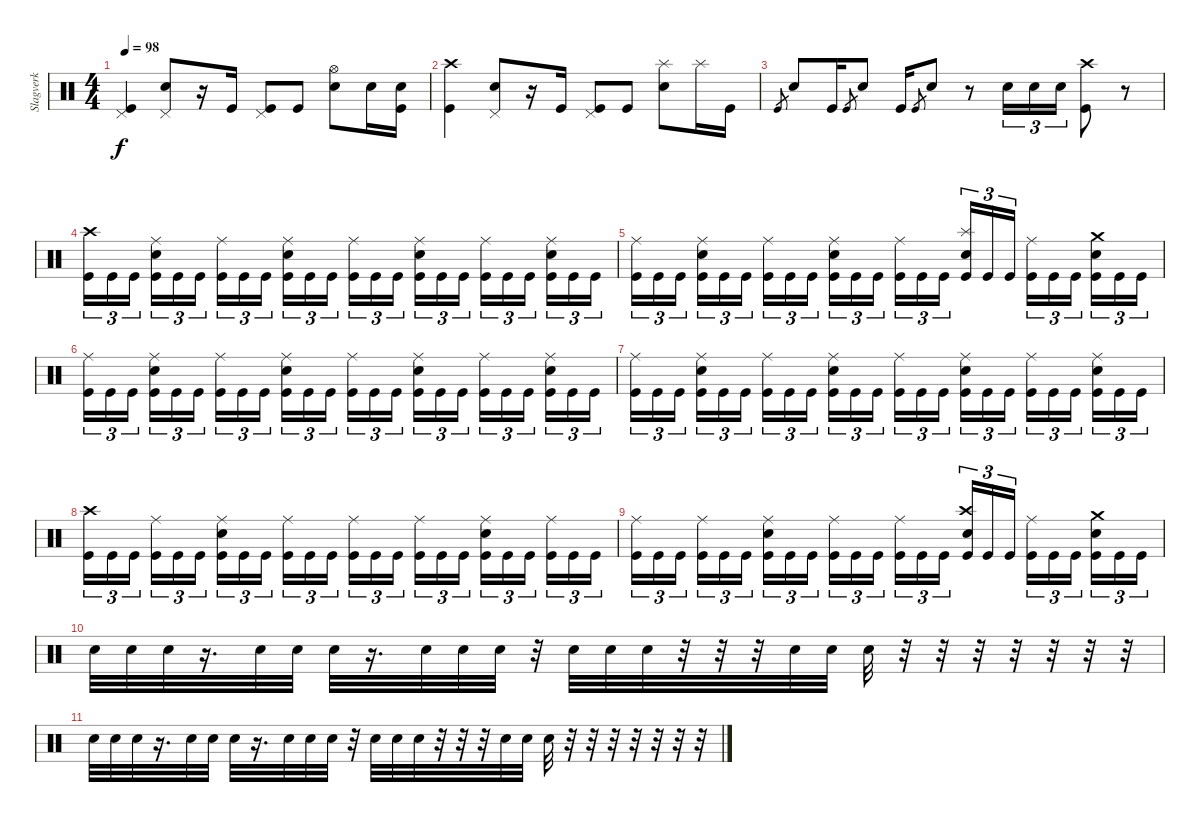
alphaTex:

\track ("Slagverk" "Slagverk") {instrument percussion}
\staff {score}
\articulation defaults
\ts (4 4)
\tempo 98
\clef neutral
\ks c
("Pedal Hi-Hat (hit)" "Kick (hit)").4{dy f} ("Pedal Hi-Hat (hit)" "Snare (hit) 2").8 r.16 "Kick (hit)".16 ("Pedal Hi-Hat (hit)" "Kick (hit)").8 "Kick (hit)".8 ("Hi-Hat (open)" "Snare (hit) 2").8 "Snare (hit) 2".16 ("Snare (hit) 2" "Kick (hit)").16 |
("Crash high (hit)" "Kick (hit)").4 ("Pedal Hi-Hat (hit)" "Snare (hit) 2").8 r.16 "Kick (hit)".16 ("Pedal Hi-Hat (hit)" "Kick (hit)").8 "Kick (hit)".8 ("Splash (hit)" "Snare (hit) 2").8 "Splash (hit)".16 "Kick (hit)".16 |
"Kick (hit)"{sl}.8{gr} "Electric Snare (hit)".8 "Kick (hit)".16 "Kick (hit)"{sl}.8{gr} "Electric Snare (hit)".8 "Kick (hit)".16 "Kick (hit)"{sl}.8{gr} "Electric Snare (hit)".8 r.8 "Electric Snare (hit)".16{tu (3 2)} "Electric Snare (hit)".16{tu (3 2)} "Electric Snare (hit)".16{tu (3 2)} ("Crash high (hit)" "Kick (hit)").8 r.8 |
("Crash high (hit)" "Kick (hit)").16{tu (3 2)} "Kick (hit)".16{tu (3 2)} "Kick (hit)".16{tu (3 2)} ("Ride (middle)" "Electric Snare (hit)" "Kick (hit)").16{tu (3 2)} "Kick (hit)".16{tu (3 2)} "Kick (hit)".16{tu (3 2)} ("Ride (middle)" "Kick (hit)").16{tu (3 2)} "Kick (hit)".16{tu (3 2)} "Kick (hit)".16{tu (3 2)} ("Ride (middle)" "Electric Snare (hit)" "Kick (hit)").16{tu (3 2)} "Kick (hit)".16{tu (3 2)} "Kick (hit)".16{tu (3 2)} ("Ride (middle)" "Kick (hit)").16{tu (3 2)} "Kick (hit)".16{tu (3 2)} "Kick (hit)".16{tu (3 2)} ("Ride (middle)" "Electric Snare (hit)" "Kick (hit)").16{tu (3 2)} "Kick (hit)".16{tu (3 2)} "Kick (hit)".16{tu (3 2)} ("Ride (middle)" "Kick (hit)").16{tu (3 2)} "Kick (hit)".16{tu (3 2)} "Kick (hit)".16{tu (3 2)} ("Ride (middle)" "Electric Snare (hit)" "Kick (hit)").16{tu (3 2)} "Kick (hit)".16{tu (3 2)} "Kick (hit)".16{tu (3 2)} |
("Ride (middle)" "Kick (hit)").16{tu (3 2)} "Kick (hit)".16{tu (3 2)} "Kick (hit)".16{tu (3 2)} ("Ride (middle)" "Electric Snare (hit)" "Kick (hit)").16{tu (3 2)} "Kick (hit)".16{tu (3 2)} "Kick (hit)".16{tu (3 2)} ("Ride (middle)" "Kick (hit)").16{tu (3 2)} "Kick (hit)".16{tu (3 2)} "Kick (hit)".16{tu (3 2)} ("Ride (middle)" "Electric Snare (hit)" "Kick (hit)").16{tu (3 2)} "Kick (hit)".16{tu (3 2)} "Kick (hit)".16{tu (3 2)} ("Ride (middle)" "Kick (hit)").16{tu (3 2)} "Kick (hit)".16{tu (3 2)} "Kick (hit)".16{tu (3 2)} ("Splash (hit)" "Electric Snare (hit)" "Kick (hit)").16{tu (3 2)} "Kick (hit)".16{tu (3 2)} "Kick (hit)".16{tu (3 2)} ("Ride (middle)" "Kick (hit)").16{tu (3 2)} "Kick (hit)".16{tu (3 2)} "Kick (hit)".16{tu (3 2)} ("Crash medium (hit)" "Electric Snare (hit)" "Kick (hit)").16{tu (3 2)} "Kick (hit)".16{tu (3 2)} "Kick (hit)".16{tu (3 2)} |
("Ride (middle)" "Kick (hit)").16{tu (3 2)} "Kick (hit)".16{tu (3 2)} "Kick (hit)".16{tu (3 2)} ("Ride (middle)" "Electric Snare (hit)" "Kick (hit)").16{tu (3 2)} "Kick (hit)".16{tu (3 2)} "Kick (hit)".16{tu (3 2)} ("Ride (middle)" "Kick (hit)").16{tu (3 2)} "Kick (hit)".16{tu (3 2)} "Kick (hit)".16{tu (3 2)} ("Ride (middle)" "Electric Snare (hit)" "Kick (hit)").16{tu (3 2)} "Kick (hit)".16{tu (3 2)} "Kick (hit)".16{tu (3 2)} ("Ride (middle)" "Kick (hit)").16{tu (3 2)} "Kick (hit)".16{tu (3 2)} "Kick (hit)".16{tu (3 2)} ("Ride (middle)" "Electric Snare (hit)" "Kick (hit)").16{tu (3 2)} "Kick (hit)".16{tu (3 2)} "Kick (hit)".16{tu (3 2)} ("Ride (middle)" "Kick (hit)").16{tu (3 2)} "Kick (hit)".16{tu (3 2)} "Kick (hit)".16{tu (3 2)} ("Ride (middle)" "Electric Snare (hit)" "Kick (hit)").16{tu (3 2)} "Kick (hit)".16{tu (3 2)} "Kick (hit)".16{tu (3 2)} |
("Ride (middle)" "Kick (hit)").16{tu (3 2)} "Kick (hit)".16{tu (3 2)} "Kick (hit)".16{tu (3 2)} ("Ride (middle)" "Electric Snare (hit)" "Kick (hit)").16{tu (3 2)} "Kick (hit)".16{tu (3 2)} "Kick (hit)".16{tu (3 2)} ("Ride (middle)" "Kick (hit)").16{tu (3 2)} "Kick (hit)".16{tu (3 2)} "Kick (hit)".16{tu (3 2)} ("Ride (middle)" "Electric Snare (hit)" "Kick (hit)").16{tu (3 2)} "Kick (hit)".16{tu (3 2)} "Kick (hit)".16{tu (3 2)} ("Ride (middle)" "Kick (hit)").16{tu (3 2)} "Kick (hit)".16{tu (3 2)} "Kick (hit)".16{tu (3 2)} ("Ride (middle)" "Electric Snare (hit)" "Kick (hit)").16{tu (3 2)} "Kick (hit)".16{tu (3 2)} "Kick (hit)".16{tu (3 2)} ("Ride (middle)" "Kick (hit)").16{tu (3 2)} "Kick (hit)".16{tu (3 2)} "Kick (hit)".16{tu (3 2)} ("Ride (middle)" "Electric Snare (hit)" "Kick (hit)").16{tu (3 2)} "Kick (hit)".16{tu (3 2)} "Kick (hit)".16{tu (3 2)} |
("Crash high (hit)" "Kick (hit)").16{tu (3 2)} "Kick (hit)".16{tu (3 2)} "Kick (hit)".16{tu (3 2)} ("Ride (middle)" "Kick (hit)").16{tu (3 2)} "Kick (hit)".16{tu (3 2)} "Kick (hit)".16{tu (3 2)} ("Ride (middle)" "Electric Snare (hit)" "Kick (hit)").16{tu (3 2)} "Kick (hit)".16{tu (3 2)} "Kick (hit)".16{tu (3 2)} ("Ride (middle)" "Kick (hit)").16{tu (3 2)} "Kick (hit)".16{tu (3 2)} "Kick (hit)".16{tu (3 2)} ("Ride (middle)" "Kick (hit)").16{tu (3 2)} "Kick (hit)".16{tu (3 2)} "Kick (hit)".16{tu (3 2)} ("Ride (middle)" "Kick (hit)").16{tu (3 2)} "Kick (hit)".16{tu (3 2)} "Kick (hit)".16{tu (3 2)} ("Ride (middle)" "Electric Snare (hit)" "Kick (hit)").16{tu (3 2)} "Kick (hit)".16{tu (3 2)} "Kick (hit)".16{tu (3 2)} ("Ride (middle)" "Kick (hit)").16{tu (3 2)} "Kick (hit)".16{tu (3 2)} "Kick (hit)".16{tu (3 2)} |
("Ride (middle)" "Kick (hit)").16{tu (3 2)} "Kick (hit)".16{tu (3 2)} "Kick (hit)".16{tu (3 2)} ("Ride (middle)" "Kick (hit)").16{tu (3 2)} "Kick (hit)".16{tu (3 2)} "Kick (hit)".16{tu (3 2)} ("Ride (middle)" "Electric Snare (hit)" "Kick (hit)").16{tu (3 2)} "Kick (hit)".16{tu (3 2)} "Kick (hit)".16{tu (3 2)} ("Ride (middle)" "Kick (hit)").16{tu (3 2)} "Kick (hit)".16{tu (3 2)} "Kick (hit)".16{tu (3 2)} ("Ride (middle)" "Kick (hit)").16{tu (3 2)} "Kick (hit)".16{tu (3 2)} "Kick (hit)".16{tu (3 2)} ("Crash high (hit)" "Electric Snare (hit)" "Kick (hit)").16{tu (3 2)} "Kick (hit)".16{tu (3 2)} "Kick (hit)".16{tu (3 2)} ("Ride (middle)" "Kick (hit)").16{tu (3 2)} "Kick (hit)".16{tu (3 2)} "Kick (hit)".16{tu (3 2)} ("Crash medium (hit)" "Electric Snare (hit)" "Kick (hit)").16{tu (3 2)} "Kick (hit)".16{tu (3 2)} "Kick (hit)".16{tu (3 2)} |
"Electric Snare (hit)".32 "Electric Snare (hit)".32 "Electric Snare (hit)".32 r.16{d} "Electric Snare (hit)".32 "Electric Snare (hit)".32 "Electric Snare (hit)".32 r.16{d} "Electric Snare (hit)".32 "Electric Snare (hit)".32 "Electric Snare (hit)".32 r.32 "Electric Snare (hit)".32 "Electric Snare (hit)".32 "Electric Snare (hit)".32 r.32 r.32 r.32 "Electric Snare (hit)".32 "Electric Snare (hit)".32 "Electric Snare (hit)".32 r.32 r.32 r.32 r.32 r.32 r.32 r.32 |
"Electric Snare (hit)".32 "Electric Snare (hit)".32 "Electric Snare (hit)".32 r.16{d} "Electric Snare (hit)".32 "Electric Snare (hit)".32 "Electric Snare (hit)".32 r.16{d} "Electric Snare (hit)".32 "Electric Snare (hit)".32 "Electric Snare (hit)".32 r.32 "Electric Snare (hit)".32 "Electric Snare (hit)".32 "Electric Snare (hit)".32 r.32 r.32 r.32 "Electric Snare (hit)".32 "Electric Snare (hit)".32 "Electric Snare (hit)".32 r.32 r.32 r.32 r.32 r.32 r.32 r.32
